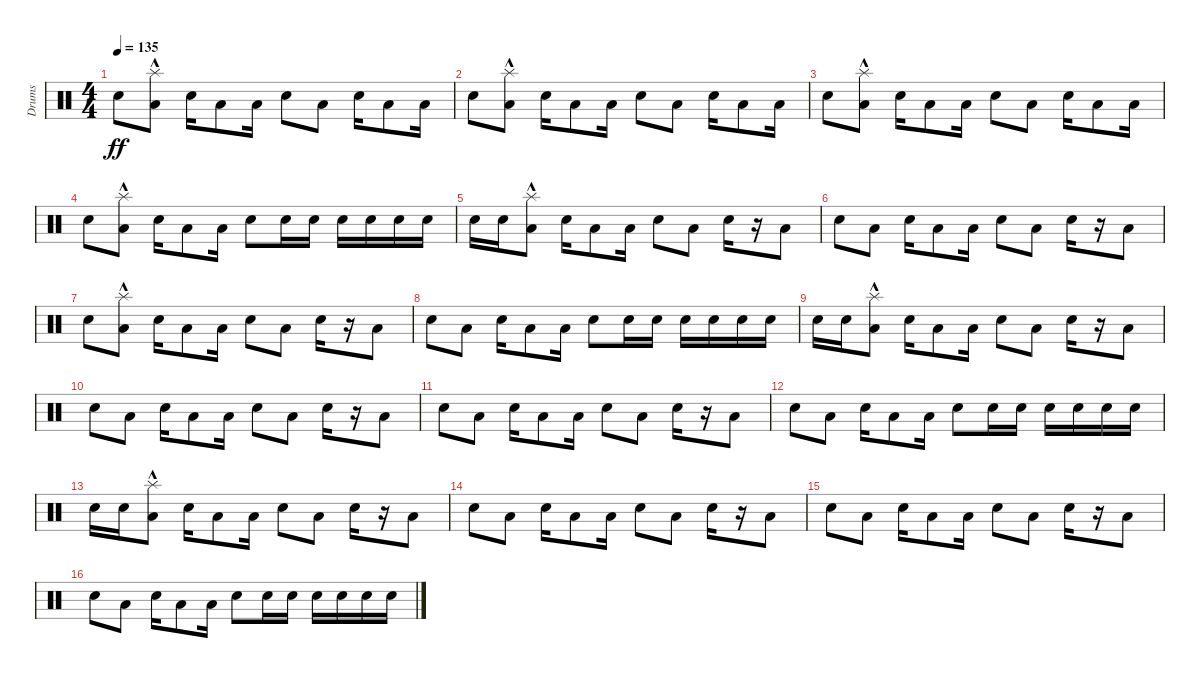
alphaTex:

\track ("Drums" "Drums") {instrument percussion}
\staff {score}
\articulation defaults
\ts (4 4)
\tempo 135
\clef neutral
\ks c "Electric Snare (hit)".8{dy ff}
("Low Floor Tom (hit)" "Splash (hit)"{hac}).8{balance 16} "Electric Snare (hit)".16{balance 8} "Low Floor Tom (hit)".8 "Low Floor Tom (hit)".16 "Electric Snare (hit)".8 "Low Floor Tom (hit)".8 "Electric Snare (hit)".16 "Low Floor Tom (hit)".8 "Low Floor Tom (hit)".16 |
"Electric Snare (hit)".8 ("Low Floor Tom (hit)" "Splash (hit)"{hac}).8{balance 0} "Electric Snare (hit)".16{balance 8} "Low Floor Tom (hit)".8 "Low Floor Tom (hit)".16 "Electric Snare (hit)".8 "Low Floor Tom (hit)".8 "Electric Snare (hit)".16 "Low Floor Tom (hit)".8 "Low Floor Tom (hit)".16 |
"Electric Snare (hit)".8 ("Low Floor Tom (hit)" "Splash (hit)"{hac}).8{balance 0} "Electric Snare (hit)".16{balance 8} "Low Floor Tom (hit)".8 "Low Floor Tom (hit)".16 "Electric Snare (hit)".8 "Low Floor Tom (hit)".8 "Electric Snare (hit)".16 "Low Floor Tom (hit)".8 "Low Floor Tom (hit)".16 |
"Electric Snare (hit)".8 ("Low Floor Tom (hit)" "Splash (hit)"{hac}).8{balance 0} "Electric Snare (hit)".16{balance 8} "Low Floor Tom (hit)".8 "Low Floor Tom (hit)".16 "Electric Snare (hit)".8 "Electric Snare (hit)".16 "Electric Snare (hit)".16 "Electric Snare (hit)".16 "Electric Snare (hit)".16 "Electric Snare (hit)".16 "Electric Snare (hit)".16 |
"Electric Snare (hit)".16 "Electric Snare (hit)".16 ("Low Floor Tom (hit)" "Splash (hit)"{hac}).8 "Electric Snare (hit)".16 "Low Floor Tom (hit)".8 "Low Floor Tom (hit)".16 "Electric Snare (hit)".8 "Low Floor Tom (hit)".8 "Electric Snare (hit)".16 r.16 "Low Floor Tom (hit)".8 |
"Electric Snare (hit)".8 "Low Floor Tom (hit)".8 "Electric Snare (hit)".16 "Low Floor Tom (hit)".8 "Low Floor Tom (hit)".16 "Electric Snare (hit)".8 "Low Floor Tom (hit)".8 "Electric Snare (hit)".16 r.16 "Low Floor Tom (hit)".8 |
"Electric Snare (hit)".8 ("Low Floor Tom (hit)" "Splash (hit)"{hac}).8 "Electric Snare (hit)".16 "Low Floor Tom (hit)".8 "Low Floor Tom (hit)".16 "Electric Snare (hit)".8 "Low Floor Tom (hit)".8 "Electric Snare (hit)".16 r.16 "Low Floor Tom (hit)".8 |
"Electric Snare (hit)".8 "Low Floor Tom (hit)".8 "Electric Snare (hit)".16 "Low Floor Tom (hit)".8 "Low Floor Tom (hit)".16 "Electric Snare (hit)".8 "Electric Snare (hit)".16 "Electric Snare (hit)".16 "Electric Snare (hit)".16 "Electric Snare (hit)".16 "Electric Snare (hit)".16 "Electric Snare (hit)".16 |
"Electric Snare (hit)".16 "Electric Snare (hit)".16 ("Low Floor Tom (hit)" "Splash (hit)"{hac}).8{balance 16} "Electric Snare (hit)".16{balance 8} "Low Floor Tom (hit)".8 "Low Floor Tom (hit)".16 "Electric Snare (hit)".8 "Low Floor Tom (hit)".8 "Electric Snare (hit)".16 r.16 "Low Floor Tom (hit)".8 |
"Electric Snare (hit)".8 "Low Floor Tom (hit)".8 "Electric Snare (hit)".16 "Low Floor Tom (hit)".8 "Low Floor Tom (hit)".16 "Electric Snare (hit)".8 "Low Floor Tom (hit)".8 "Electric Snare (hit)".16 r.16 "Low Floor Tom (hit)".8 |
"Electric Snare (hit)".8 "Low Floor Tom (hit)".8 "Electric Snare (hit)".16 "Low Floor Tom (hit)".8 "Low Floor Tom (hit)".16 "Electric Snare (hit)".8 "Low Floor Tom (hit)".8 "Electric Snare (hit)".16 r.16 "Low Floor Tom (hit)".8 |
"Electric Snare (hit)".8 "Low Floor Tom (hit)".8 "Electric Snare (hit)".16 "Low Floor Tom (hit)".8 "Low Floor Tom (hit)".16 "Electric Snare (hit)".8 "Electric Snare (hit)".16 "Electric Snare (hit)".16 "Electric Snare (hit)".16 "Electric Snare (hit)".16 "Electric Snare (hit)".16 "Electric Snare (hit)".16 |
"Electric Snare (hit)".16 "Electric Snare (hit)".16 ("Low Floor Tom (hit)" "Splash (hit)"{hac}).8 "Electric Snare (hit)".16 "Low Floor Tom (hit)".8 "Low Floor Tom (hit)".16 "Electric Snare (hit)".8 "Low Floor Tom (hit)".8 "Electric Snare (hit)".16 r.16 "Low Floor Tom (hit)".8 |
"Electric Snare (hit)".8 "Low Floor Tom (hit)".8 "Electric Snare (hit)".16 "Low Floor Tom (hit)".8 "Low Floor Tom (hit)".16 "Electric Snare (hit)".8 "Low Floor Tom (hit)".8 "Electric Snare (hit)".16 r.16 "Low Floor Tom (hit)".8 |
"Electric Snare (hit)".8 "Low Floor Tom (hit)".8 "Electric Snare (hit)".16 "Low Floor Tom (hit)".8 "Low Floor Tom (hit)".16 "Electric Snare (hit)".8 "Low Floor Tom (hit)".8 "Electric Snare (hit)".16 r.16 "Low Floor Tom (hit)".8 |
"Electric Snare (hit)".8 "Low Floor Tom (hit)".8 "Electric Snare (hit)".16 "Low Floor Tom (hit)".8 "Low Floor Tom (hit)".16 "Electric Snare (hit)".8 "Electric Snare (hit)".16 "Electric Snare (hit)".16 "Electric Snare (hit)".16 "Electric Snare (hit)".16 "Electric Snare (hit)".16 "Electric Snare (hit)".16
